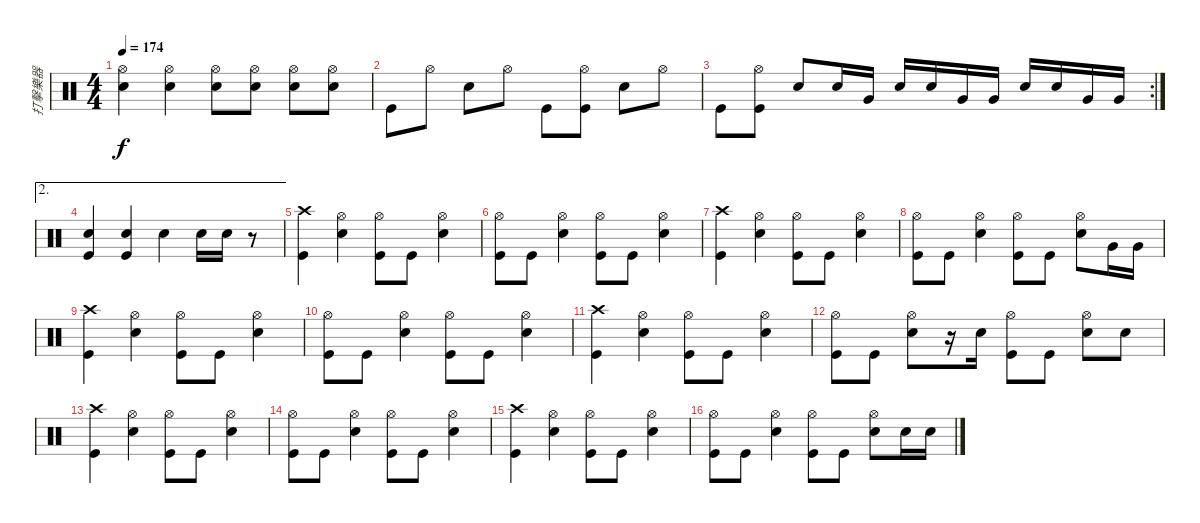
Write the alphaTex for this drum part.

\track ("打擊樂器" "打擊樂器") {instrument percussion}
\staff {score}
\articulation defaults
\ts (4 4)
\tempo 174
\clef neutral
\ks c
("Hi-Hat (open)" "Snare (hit) 2").4{dy f} ("Hi-Hat (open)" "Snare (hit) 2").4 ("Hi-Hat (open)" "Snare (hit) 2").8 ("Hi-Hat (open)" "Snare (hit) 2").8 ("Hi-Hat (open)" "Snare (hit) 2").8 ("Snare (hit) 2" "Hi-Hat (open)").8 |
"Kick (hit)".8 "Hi-Hat (open)".8 "Snare (hit) 2".8 "Hi-Hat (open)".8 "Kick (hit)".8 ("Kick (hit)" "Hi-Hat (open)").8 "Snare (hit) 2".8 "Hi-Hat (open)".8 |
\rc 2 "Kick (hit)".8
("Hi-Hat (open)" "Kick (hit)").8 "Snare (hit) 2".8 "Snare (hit) 2".16 "Very Low Tom (hit)".16 "Snare (hit) 2".16 "Snare (hit) 2".16 "Very Low Tom (hit)".16 "Very Low Tom (hit)".16 "Snare (hit) 2".16 "Snare (hit) 2".16 "Very Low Tom (hit)".16 "Very Low Tom (hit)".16 |
\ae 2
("Kick (hit)" "Snare (hit) 2").4 ("Snare (hit) 2" "Kick (hit)").4 "Snare (hit) 2".4 "Snare (hit) 2".16 "Snare (hit) 2".16 r.8 |
("Crash high (hit)" "Kick (hit)").4 ("Hi-Hat (open)" "Snare (hit) 2").4 ("Kick (hit)" "Hi-Hat (open)").8 "Kick (hit)".8 ("Hi-Hat (open)" "Snare (hit) 2").4 |
("Hi-Hat (open)" "Kick (hit)").8 "Kick (hit)".8 ("Hi-Hat (open)" "Snare (hit) 2").4 ("Hi-Hat (open)" "Kick (hit)").8 "Kick (hit)".8 ("Hi-Hat (open)" "Snare (hit) 2").4 |
("Crash high (hit)" "Kick (hit)").4 ("Hi-Hat (open)" "Snare (hit) 2").4 ("Kick (hit)" "Hi-Hat (open)").8 "Kick (hit)".8 ("Hi-Hat (open)" "Snare (hit) 2").4 |
("Hi-Hat (open)" "Kick (hit)").8 "Kick (hit)".8 ("Hi-Hat (open)" "Snare (hit) 2").4 ("Hi-Hat (open)" "Kick (hit)").8 "Kick (hit)".8 ("Hi-Hat (open)" "Snare (hit) 2").8 "Very Low Tom (hit)".16 "Very Low Tom (hit)".16 |
("Crash high (hit)" "Kick (hit)").4 ("Hi-Hat (open)" "Snare (hit) 2").4 ("Kick (hit)" "Hi-Hat (open)").8 "Kick (hit)".8 ("Hi-Hat (open)" "Snare (hit) 2").4 |
("Hi-Hat (open)" "Kick (hit)").8 "Kick (hit)".8 ("Hi-Hat (open)" "Snare (hit) 2").4 ("Hi-Hat (open)" "Kick (hit)").8 "Kick (hit)".8 ("Hi-Hat (open)" "Snare (hit) 2").4 |
("Crash high (hit)" "Kick (hit)").4 ("Hi-Hat (open)" "Snare (hit) 2").4 ("Kick (hit)" "Hi-Hat (open)").8 "Kick (hit)".8 ("Hi-Hat (open)" "Snare (hit) 2").4 |
("Hi-Hat (open)" "Kick (hit)").8 "Kick (hit)".8 ("Hi-Hat (open)" "Snare (hit) 2").8 r.16 "Snare (hit) 2".16 ("Hi-Hat (open)" "Kick (hit)").8 "Kick (hit)".8 ("Hi-Hat (open)" "Snare (hit) 2").8 "Snare (hit) 2".8 |
("Crash high (hit)" "Kick (hit)").4 ("Hi-Hat (open)" "Snare (hit) 2").4 ("Kick (hit)" "Hi-Hat (open)").8 "Kick (hit)".8 ("Hi-Hat (open)" "Snare (hit) 2").4 |
("Hi-Hat (open)" "Kick (hit)").8 "Kick (hit)".8 ("Hi-Hat (open)" "Snare (hit) 2").4 ("Hi-Hat (open)" "Kick (hit)").8 "Kick (hit)".8 ("Hi-Hat (open)" "Snare (hit) 2").4 |
("Crash high (hit)" "Kick (hit)").4 ("Hi-Hat (open)" "Snare (hit) 2").4 ("Kick (hit)" "Hi-Hat (open)").8 "Kick (hit)".8 ("Hi-Hat (open)" "Snare (hit) 2").4 |
("Hi-Hat (open)" "Kick (hit)").8 "Kick (hit)".8 ("Hi-Hat (open)" "Snare (hit) 2").4 ("Hi-Hat (open)" "Kick (hit)").8 "Kick (hit)".8 ("Hi-Hat (open)" "Snare (hit) 2").8 "Snare (hit) 2".16 "Snare (hit) 2".16
